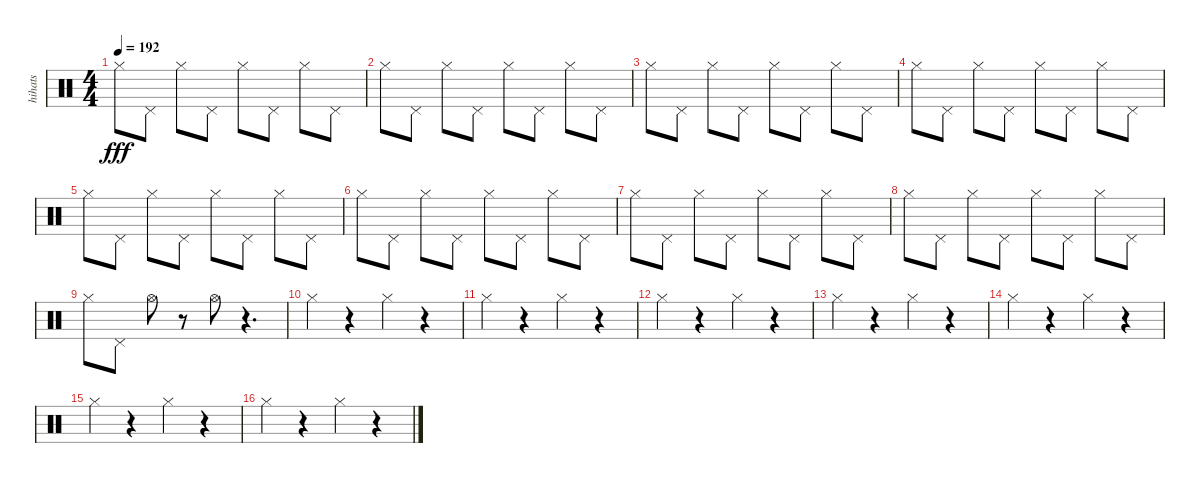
\track ("hihats" "hihats") {instrument percussion}
\staff {score}
\articulation defaults
\ts (4 4)
\tempo 192
\clef neutral
\ks c "Hi-Hat (closed)".8{dy fff} "Pedal Hi-Hat (hit)".8 "Hi-Hat (closed)".8 "Pedal Hi-Hat (hit)".8 "Hi-Hat (closed)".8 "Pedal Hi-Hat (hit)".8 "Hi-Hat (closed)".8 "Pedal Hi-Hat (hit)".8
|
"Hi-Hat (closed)".8 "Pedal Hi-Hat (hit)".8 "Hi-Hat (closed)".8 "Pedal Hi-Hat (hit)".8 "Hi-Hat (closed)".8 "Pedal Hi-Hat (hit)".8 "Hi-Hat (closed)".8 "Pedal Hi-Hat (hit)".8 |
"Hi-Hat (closed)".8 "Pedal Hi-Hat (hit)".8 "Hi-Hat (closed)".8 "Pedal Hi-Hat (hit)".8 "Hi-Hat (closed)".8 "Pedal Hi-Hat (hit)".8 "Hi-Hat (closed)".8 "Pedal Hi-Hat (hit)".8 |
"Hi-Hat (closed)".8 "Pedal Hi-Hat (hit)".8 "Hi-Hat (closed)".8 "Pedal Hi-Hat (hit)".8 "Hi-Hat (closed)".8 "Pedal Hi-Hat (hit)".8 "Hi-Hat (closed)".8 "Pedal Hi-Hat (hit)".8 |
"Hi-Hat (closed)".8 "Pedal Hi-Hat (hit)".8 "Hi-Hat (closed)".8 "Pedal Hi-Hat (hit)".8 "Hi-Hat (closed)".8 "Pedal Hi-Hat (hit)".8 "Hi-Hat (closed)".8 "Pedal Hi-Hat (hit)".8 |
"Hi-Hat (closed)".8 "Pedal Hi-Hat (hit)".8 "Hi-Hat (closed)".8 "Pedal Hi-Hat (hit)".8 "Hi-Hat (closed)".8 "Pedal Hi-Hat (hit)".8 "Hi-Hat (closed)".8 "Pedal Hi-Hat (hit)".8 |
"Hi-Hat (closed)".8 "Pedal Hi-Hat (hit)".8 "Hi-Hat (closed)".8 "Pedal Hi-Hat (hit)".8 "Hi-Hat (closed)".8 "Pedal Hi-Hat (hit)".8 "Hi-Hat (closed)".8 "Pedal Hi-Hat (hit)".8 |
"Hi-Hat (closed)".8 "Pedal Hi-Hat (hit)".8 "Hi-Hat (closed)".8 "Pedal Hi-Hat (hit)".8 "Hi-Hat (closed)".8 "Pedal Hi-Hat (hit)".8 "Hi-Hat (closed)".8 "Pedal Hi-Hat (hit)".8 |
"Hi-Hat (closed)".8 "Pedal Hi-Hat (hit)".8 "Hi-Hat (open)".8 r.8 "Hi-Hat (open)".8 r.4{d} |
"Hi-Hat (closed)".4 r.4 "Hi-Hat (closed)".4 r.4 |
"Hi-Hat (closed)".4 r.4 "Hi-Hat (closed)".4 r.4 |
"Hi-Hat (closed)".4 r.4 "Hi-Hat (closed)".4 r.4 |
"Hi-Hat (closed)".4 r.4 "Hi-Hat (closed)".4 r.4 |
"Hi-Hat (closed)".4 r.4 "Hi-Hat (closed)".4 r.4 |
"Hi-Hat (closed)".4 r.4 "Hi-Hat (closed)".4 r.4 |
"Hi-Hat (closed)".4 r.4 "Hi-Hat (closed)".4 r.4
